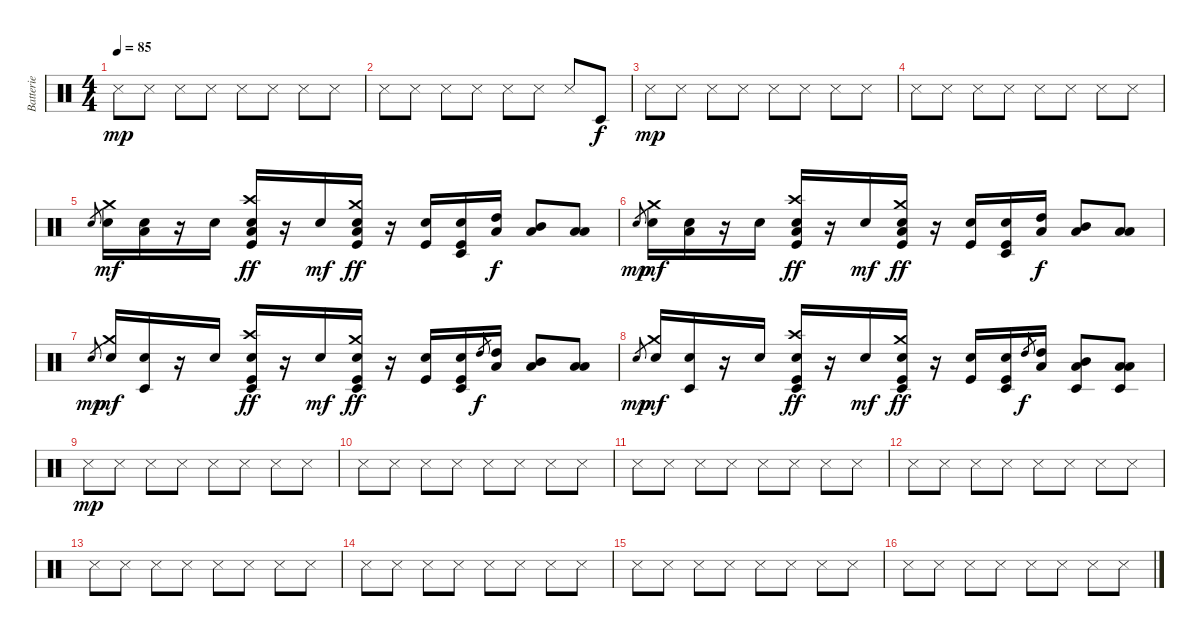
\track ("Batterie" "Batterie") {instrument percussion}
\staff {score}
\articulation defaults
\ts (4 4)
\tempo 85
\clef neutral
\ks c "Snare (side stick) 3".8{dy mp} "Snare (side stick) 3".8 "Snare (side stick) 3".8 "Snare (side stick) 3".8 "Snare (side stick) 3".8 "Snare (side stick) 3".8 "Snare (side stick) 3".8 "Snare (side stick) 3".8
|
"Snare (side stick) 3".8 "Snare (side stick) 3".8 "Snare (side stick) 3".8 "Snare (side stick) 3".8 "Snare (side stick) 3".8 "Snare (side stick) 3".8 "Snare (side stick) 3".8 "Timbale low (hit)".8{dy f} |
"Snare (side stick) 3".8{dy mp} "Snare (side stick) 3".8 "Snare (side stick) 3".8 "Snare (side stick) 3".8 "Snare (side stick) 3".8 "Snare (side stick) 3".8 "Snare (side stick) 3".8 "Snare (side stick) 3".8 |
"Snare (side stick) 3".8 "Snare (side stick) 3".8 "Snare (side stick) 3".8 "Snare (side stick) 3".8 "Snare (side stick) 3".8 "Snare (side stick) 3".8 "Snare (side stick) 3".8 "Snare (side stick) 3".8 |
"Electric Snare (hit)".8{gr} ("Crash medium (hit)" "Electric Snare (hit)").16{dy mf} ("Electric Snare (hit)" "Low Tom (hit)").16 r.16 "Electric Snare (hit)".16 ("Crash high (hit)" "Electric Snare (hit)" "Low Tom (hit)" "Kick (hit)").16{dy ff} r.16 "Electric Snare (hit)".16{dy mf} ("Crash medium (hit)" "Electric Snare (hit)" "Low Tom (hit)" "Kick (hit)").16{dy ff} r.16 ("Electric Snare (hit)" "Kick (hit)").16 ("Electric Snare (hit)" "Timbale low (hit)" "Kick (hit)").16 ("High Tom (hit)" "Low Tom (hit)").16{dy f} ("Mid Tom (hit)" "Low Tom (hit)").8 ("Low Tom (hit)" "Low Tom (hit)").8 |
"Electric Snare (hit)".8{gr dy mp} ("Crash medium (hit)" "Electric Snare (hit)").16{dy mf} ("Electric Snare (hit)" "Low Tom (hit)").16 r.16 "Electric Snare (hit)".16 ("Crash high (hit)" "Electric Snare (hit)" "Low Tom (hit)" "Kick (hit)").16{dy ff} r.16 "Electric Snare (hit)".16{dy mf} ("Crash medium (hit)" "Electric Snare (hit)" "Low Tom (hit)" "Kick (hit)").16{dy ff} r.16 ("Electric Snare (hit)" "Kick (hit)").16 ("Electric Snare (hit)" "Timbale low (hit)" "Kick (hit)").16 ("High Tom (hit)" "Low Tom (hit)").16{dy f} ("Mid Tom (hit)" "Low Tom (hit)").8 ("Low Tom (hit)" "Low Tom (hit)").8 |
"Electric Snare (hit)".8{gr dy mp} ("Crash medium (hit)" "Electric Snare (hit)").16{dy mf} ("Electric Snare (hit)" "Timbale low (hit)").16 r.16 "Electric Snare (hit)".16 ("Crash high (hit)" "Electric Snare (hit)" "Timbale low (hit)" "Kick (hit)").16{dy ff} r.16 "Electric Snare (hit)".16{dy mf} ("Crash medium (hit)" "Electric Snare (hit)" "Timbale low (hit)" "Kick (hit)").16{dy ff} r.16 ("Electric Snare (hit)" "Kick (hit)").16 ("Electric Snare (hit)" "Timbale low (hit)" "Kick (hit)").16 "High Tom (hit)".8{gr dy f} ("High Tom (hit)" "Low Tom (hit)").16 ("Mid Tom (hit)" "Low Tom (hit)").8 ("Low Tom (hit)" "Low Tom (hit)").8 |
"Electric Snare (hit)".8{gr dy mp} ("Crash medium (hit)" "Electric Snare (hit)").16{dy mf} ("Electric Snare (hit)" "Timbale low (hit)").16 r.16 "Electric Snare (hit)".16 ("Crash high (hit)" "Electric Snare (hit)" "Timbale low (hit)" "Kick (hit)").16{dy ff} r.16 "Electric Snare (hit)".16{dy mf} ("Crash medium (hit)" "Electric Snare (hit)" "Timbale low (hit)" "Kick (hit)").16{dy ff} r.16 ("Electric Snare (hit)" "Kick (hit)").16 ("Electric Snare (hit)" "Timbale low (hit)" "Kick (hit)").16 "High Tom (hit)".8{gr dy f} ("High Tom (hit)" "Low Tom (hit)").16 ("Timbale low (hit)" "Mid Tom (hit)" "Low Tom (hit)").8 ("Timbale low (hit)" "Low Tom (hit)" "Low Tom (hit)").8 |
"Snare (side stick) 3".8{dy mp} "Snare (side stick) 3".8 "Snare (side stick) 3".8 "Snare (side stick) 3".8 "Snare (side stick) 3".8 "Snare (side stick) 3".8 "Snare (side stick) 3".8 "Snare (side stick) 3".8 |
"Snare (side stick) 3".8 "Snare (side stick) 3".8 "Snare (side stick) 3".8 "Snare (side stick) 3".8 "Snare (side stick) 3".8 "Snare (side stick) 3".8 "Snare (side stick) 3".8 "Snare (side stick) 3".8 |
"Snare (side stick) 3".8 "Snare (side stick) 3".8 "Snare (side stick) 3".8 "Snare (side stick) 3".8 "Snare (side stick) 3".8 "Snare (side stick) 3".8 "Snare (side stick) 3".8 "Snare (side stick) 3".8 |
"Snare (side stick) 3".8 "Snare (side stick) 3".8 "Snare (side stick) 3".8 "Snare (side stick) 3".8 "Snare (side stick) 3".8 "Snare (side stick) 3".8 "Snare (side stick) 3".8 "Snare (side stick) 3".8 |
"Snare (side stick) 3".8 "Snare (side stick) 3".8 "Snare (side stick) 3".8 "Snare (side stick) 3".8 "Snare (side stick) 3".8 "Snare (side stick) 3".8 "Snare (side stick) 3".8 "Snare (side stick) 3".8 |
"Snare (side stick) 3".8 "Snare (side stick) 3".8 "Snare (side stick) 3".8 "Snare (side stick) 3".8 "Snare (side stick) 3".8 "Snare (side stick) 3".8 "Snare (side stick) 3".8 "Snare (side stick) 3".8 |
"Snare (side stick) 3".8 "Snare (side stick) 3".8 "Snare (side stick) 3".8 "Snare (side stick) 3".8 "Snare (side stick) 3".8 "Snare (side stick) 3".8 "Snare (side stick) 3".8 "Snare (side stick) 3".8 |
"Snare (side stick) 3".8 "Snare (side stick) 3".8 "Snare (side stick) 3".8 "Snare (side stick) 3".8 "Snare (side stick) 3".8 "Snare (side stick) 3".8 "Snare (side stick) 3".8 "Snare (side stick) 3".8
